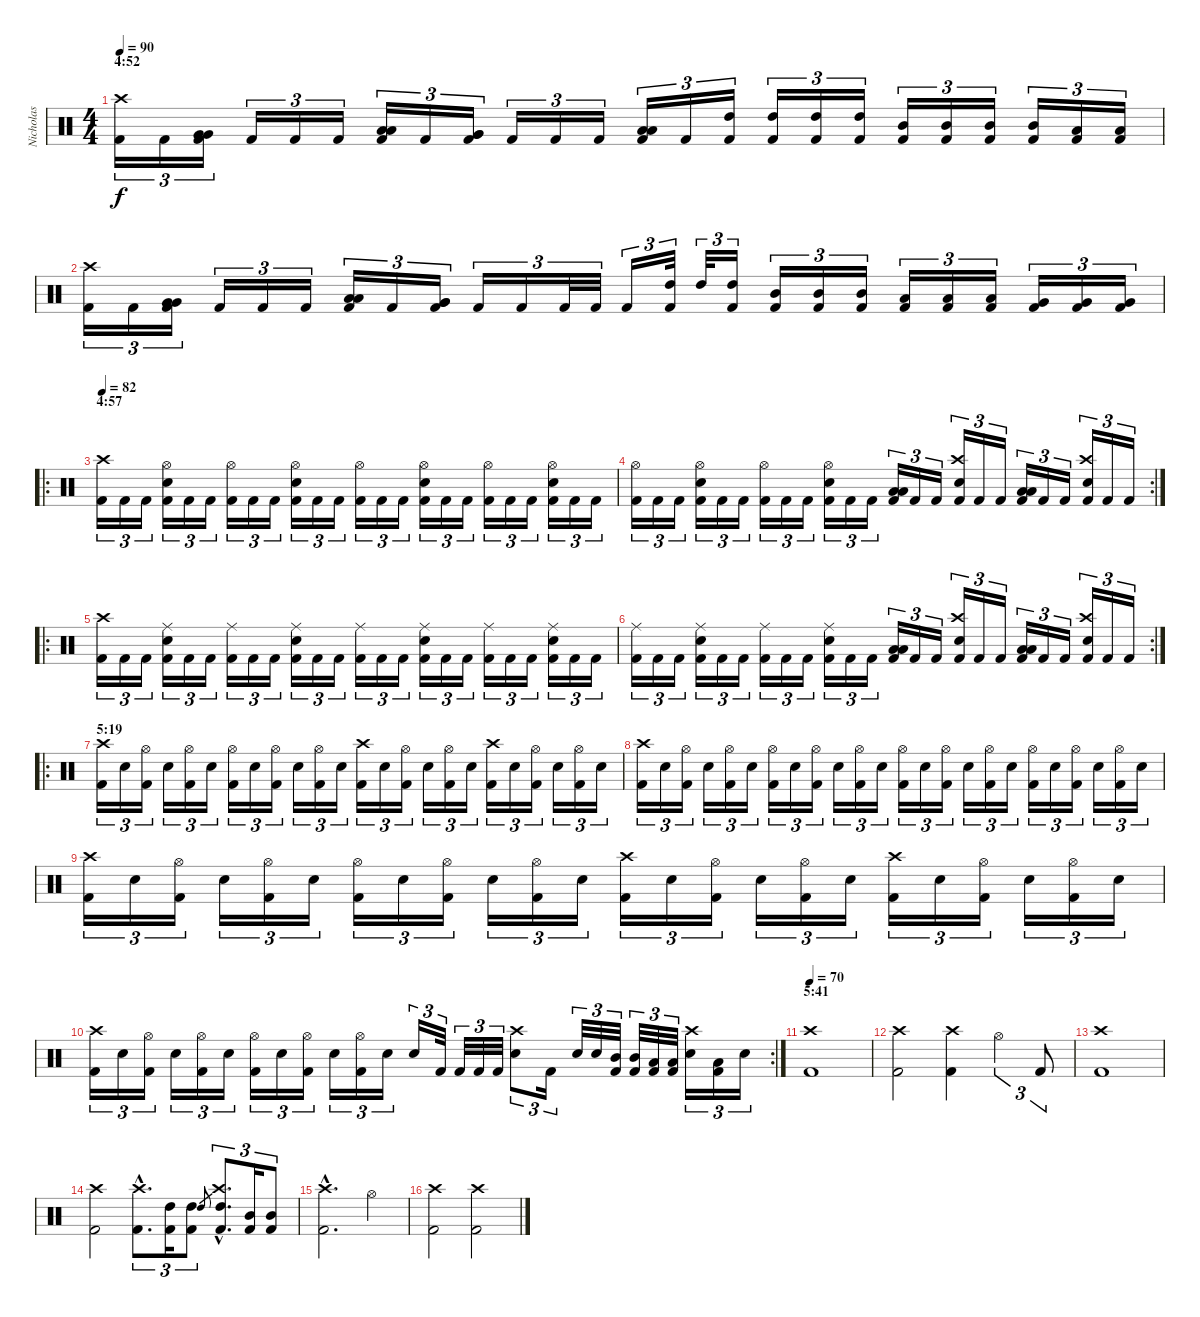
\track ("Nicholas" "Nicholas") {instrument percussion}
\staff {score}
\articulation defaults
\ts (4 4)
\section ("" "4:52")
\tempo 90
\clef neutral
\ks c
("Kick (hit) 2" "Crash high (hit)").16{tu (3 2) dy f} "Kick (hit) 2".16{tu (3 2)} ("Kick (hit) 2" "Very Low Tom (hit)" "Very Low Tom (hit)").16{tu (3 2)} "Kick (hit) 2".16{tu (3 2)} "Kick (hit) 2".16{tu (3 2)} "Kick (hit) 2".16{tu (3 2)} ("Kick (hit) 2" "Low Tom (hit)" "Low Tom (hit)").16{tu (3 2)} "Kick (hit) 2".16{tu (3 2)} ("Kick (hit) 2" "Very Low Tom (hit)" "Very Low Tom (hit)").16{tu (3 2)} "Kick (hit) 2".16{tu (3 2)} "Kick (hit) 2".16{tu (3 2)} "Kick (hit) 2".16{tu (3 2)} ("Kick (hit) 2" "Low Tom (hit)" "Low Tom (hit)").16{tu (3 2)} "Kick (hit) 2".16{tu (3 2)} ("Kick (hit) 2" "High Tom (hit)").16{tu (3 2)} ("Kick (hit) 2" "High Tom (hit)").16{tu (3 2)} ("Kick (hit) 2" "High Tom (hit)").16{tu (3 2)} ("Kick (hit) 2" "High Tom (hit)").16{tu (3 2)} ("Kick (hit) 2" "Mid Tom (hit)").16{tu (3 2)} ("Kick (hit) 2" "Mid Tom (hit)").16{tu (3 2)} ("Kick (hit) 2" "Mid Tom (hit)").16{tu (3 2)} ("Kick (hit) 2" "Mid Tom (hit)").16{tu (3 2)} ("Kick (hit) 2" "Low Tom (hit)").16{tu (3 2)} ("Kick (hit) 2" "Low Tom (hit)").16{tu (3 2)} |
("Kick (hit) 2" "Crash high (hit)").16{tu (3 2)} "Kick (hit) 2".16{tu (3 2)} ("Kick (hit) 2" "Very Low Tom (hit)" "Very Low Tom (hit)").16{tu (3 2)} "Kick (hit) 2".16{tu (3 2)} "Kick (hit) 2".16{tu (3 2)} "Kick (hit) 2".16{tu (3 2)} ("Kick (hit) 2" "Low Tom (hit)" "Low Tom (hit)").16{tu (3 2)} "Kick (hit) 2".16{tu (3 2)} ("Kick (hit) 2" "Very Low Tom (hit)" "Very Low Tom (hit)").16{tu (3 2)} "Kick (hit) 2".16{tu (3 2)} "Kick (hit) 2".16{tu (3 2)} "Kick (hit) 2".32{tu (3 2)} "Kick (hit) 2".32{tu (3 2)} "Kick (hit) 2".16{tu (3 2)} ("Kick (hit) 2" "High Tom (hit)").32{tu (3 2)} "High Tom (hit)".32{tu (3 2)} ("Kick (hit) 2" "High Tom (hit)").16{tu (3 2)} ("Kick (hit) 2" "Mid Tom (hit)").16{tu (3 2)} ("Kick (hit) 2" "Mid Tom (hit)").16{tu (3 2)} ("Kick (hit) 2" "Mid Tom (hit)").16{tu (3 2)} ("Kick (hit) 2" "Low Tom (hit)").16{tu (3 2)} ("Kick (hit) 2" "Low Tom (hit)").16{tu (3 2)} ("Kick (hit) 2" "Low Tom (hit)").16{tu (3 2)} ("Kick (hit) 2" "Very Low Tom (hit)").16{tu (3 2)} ("Kick (hit) 2" "Very Low Tom (hit)").16{tu (3 2)} ("Kick (hit) 2" "Very Low Tom (hit)").16{tu (3 2)} |
\ro
\section ("" "4:57")
\tempo 82
("Kick (hit) 2" "Crash high (hit)").16{tu (3 2)} "Kick (hit) 2".16{tu (3 2)} "Kick (hit) 2".16{tu (3 2)} ("Kick (hit) 2" "Snare (hit) 2" "Hi-Hat (open)").16{tu (3 2)} "Kick (hit) 2".16{tu (3 2)} "Kick (hit) 2".16{tu (3 2)} ("Kick (hit) 2" "Hi-Hat (open)").16{tu (3 2)} "Kick (hit) 2".16{tu (3 2)} "Kick (hit) 2".16{tu (3 2)} ("Kick (hit) 2" "Snare (hit) 2" "Hi-Hat (open)").16{tu (3 2)} "Kick (hit) 2".16{tu (3 2)} "Kick (hit) 2".16{tu (3 2)} ("Kick (hit) 2" "Hi-Hat (open)").16{tu (3 2)} "Kick (hit) 2".16{tu (3 2)} "Kick (hit) 2".16{tu (3 2)} ("Kick (hit) 2" "Snare (hit) 2" "Hi-Hat (open)").16{tu (3 2)} "Kick (hit) 2".16{tu (3 2)} "Kick (hit) 2".16{tu (3 2)} ("Kick (hit) 2" "Hi-Hat (open)").16{tu (3 2)} "Kick (hit) 2".16{tu (3 2)} "Kick (hit) 2".16{tu (3 2)} ("Kick (hit) 2" "Snare (hit) 2" "Hi-Hat (open)").16{tu (3 2)} "Kick (hit) 2".16{tu (3 2)} "Kick (hit) 2".16{tu (3 2)} |
\rc 2
("Kick (hit) 2" "Hi-Hat (open)").16{tu (3 2)} "Kick (hit) 2".16{tu (3 2)} "Kick (hit) 2".16{tu (3 2)} ("Kick (hit) 2" "Snare (hit) 2" "Hi-Hat (open)").16{tu (3 2)} "Kick (hit) 2".16{tu (3 2)} "Kick (hit) 2".16{tu (3 2)} ("Kick (hit) 2" "Hi-Hat (open)").16{tu (3 2)} "Kick (hit) 2".16{tu (3 2)} "Kick (hit) 2".16{tu (3 2)} ("Kick (hit) 2" "Snare (hit) 2" "Hi-Hat (open)").16{tu (3 2)} "Kick (hit) 2".16{tu (3 2)} "Kick (hit) 2".16{tu (3 2)} ("Kick (hit) 2" "Low Tom (hit)" "Low Tom (hit)").16{tu (3 2)} "Kick (hit) 2".16{tu (3 2)} "Kick (hit) 2".16{tu (3 2)} ("Kick (hit) 2" "Snare (hit) 2" "Crash high (hit)").16{tu (3 2)} "Kick (hit) 2".16{tu (3 2)} "Kick (hit) 2".16{tu (3 2)} ("Kick (hit) 2" "Low Tom (hit)" "Low Tom (hit)").16{tu (3 2)} "Kick (hit) 2".16{tu (3 2)} "Kick (hit) 2".16{tu (3 2)} ("Kick (hit) 2" "Snare (hit) 2" "Crash high (hit)").16{tu (3 2)} "Kick (hit) 2".16{tu (3 2)} "Kick (hit) 2".16{tu (3 2)} |
\ro
("Kick (hit) 2" "Crash high (hit)").16{tu (3 2)} "Kick (hit) 2".16{tu (3 2)} "Kick (hit) 2".16{tu (3 2)} ("Kick (hit) 2" "Snare (hit) 2" "Ride (middle)").16{tu (3 2)} "Kick (hit) 2".16{tu (3 2)} "Kick (hit) 2".16{tu (3 2)} ("Kick (hit) 2" "Ride (middle)").16{tu (3 2)} "Kick (hit) 2".16{tu (3 2)} "Kick (hit) 2".16{tu (3 2)} ("Kick (hit) 2" "Snare (hit) 2" "Ride (middle)").16{tu (3 2)} "Kick (hit) 2".16{tu (3 2)} "Kick (hit) 2".16{tu (3 2)} ("Kick (hit) 2" "Ride (middle)").16{tu (3 2)} "Kick (hit) 2".16{tu (3 2)} "Kick (hit) 2".16{tu (3 2)} ("Kick (hit) 2" "Snare (hit) 2" "Ride (middle)").16{tu (3 2)} "Kick (hit) 2".16{tu (3 2)} "Kick (hit) 2".16{tu (3 2)} ("Kick (hit) 2" "Ride (middle)").16{tu (3 2)} "Kick (hit) 2".16{tu (3 2)} "Kick (hit) 2".16{tu (3 2)} ("Kick (hit) 2" "Snare (hit) 2" "Ride (middle)").16{tu (3 2)} "Kick (hit) 2".16{tu (3 2)} "Kick (hit) 2".16{tu (3 2)} |
\rc 2
("Kick (hit) 2" "Ride (middle)").16{tu (3 2)} "Kick (hit) 2".16{tu (3 2)} "Kick (hit) 2".16{tu (3 2)} ("Kick (hit) 2" "Snare (hit) 2" "Ride (middle)").16{tu (3 2)} "Kick (hit) 2".16{tu (3 2)} "Kick (hit) 2".16{tu (3 2)} ("Kick (hit) 2" "Ride (middle)").16{tu (3 2)} "Kick (hit) 2".16{tu (3 2)} "Kick (hit) 2".16{tu (3 2)} ("Kick (hit) 2" "Snare (hit) 2" "Ride (middle)").16{tu (3 2)} "Kick (hit) 2".16{tu (3 2)} "Kick (hit) 2".16{tu (3 2)} ("Kick (hit) 2" "Low Tom (hit)" "Low Tom (hit)").16{tu (3 2)} "Kick (hit) 2".16{tu (3 2)} "Kick (hit) 2".16{tu (3 2)} ("Kick (hit) 2" "Snare (hit) 2" "Crash high (hit)").16{tu (3 2)} "Kick (hit) 2".16{tu (3 2)} "Kick (hit) 2".16{tu (3 2)} ("Kick (hit) 2" "Low Tom (hit)" "Low Tom (hit)").16{tu (3 2)} "Kick (hit) 2".16{tu (3 2)} "Kick (hit) 2".16{tu (3 2)} ("Kick (hit) 2" "Snare (hit) 2" "Crash high (hit)").16{tu (3 2)} "Kick (hit) 2".16{tu (3 2)} "Kick (hit) 2".16{tu (3 2)} |
\ro
\section ("" "5:19")
("Kick (hit) 2" "Crash high (hit)").16{tu (3 2)} "Snare (hit) 2".16{tu (3 2)} ("Kick (hit) 2" "Hi-Hat (open)").16{tu (3 2)} "Snare (hit) 2".16{tu (3 2)} ("Kick (hit) 2" "Hi-Hat (open)").16{tu (3 2)} "Snare (hit) 2".16{tu (3 2)} ("Kick (hit) 2" "Hi-Hat (open)").16{tu (3 2)} "Snare (hit) 2".16{tu (3 2)} ("Kick (hit) 2" "Hi-Hat (open)").16{tu (3 2)} "Snare (hit) 2".16{tu (3 2)} ("Kick (hit) 2" "Hi-Hat (open)").16{tu (3 2)} "Snare (hit) 2".16{tu (3 2)} ("Kick (hit) 2" "Crash high (hit)").16{tu (3 2)} "Snare (hit) 2".16{tu (3 2)} ("Kick (hit) 2" "Hi-Hat (open)").16{tu (3 2)} "Snare (hit) 2".16{tu (3 2)} ("Kick (hit) 2" "Hi-Hat (open)").16{tu (3 2)} "Snare (hit) 2".16{tu (3 2)} ("Kick (hit) 2" "Crash high (hit)").16{tu (3 2)} "Snare (hit) 2".16{tu (3 2)} ("Kick (hit) 2" "Hi-Hat (open)").16{tu (3 2)} "Snare (hit) 2".16{tu (3 2)} ("Kick (hit) 2" "Hi-Hat (open)").16{tu (3 2)} "Snare (hit) 2".16{tu (3 2)} |
("Kick (hit) 2" "Crash high (hit)").16{tu (3 2)} "Snare (hit) 2".16{tu (3 2)} ("Kick (hit) 2" "Hi-Hat (open)").16{tu (3 2)} "Snare (hit) 2".16{tu (3 2)} ("Kick (hit) 2" "Hi-Hat (open)").16{tu (3 2)} "Snare (hit) 2".16{tu (3 2)} ("Kick (hit) 2" "Hi-Hat (open)").16{tu (3 2)} "Snare (hit) 2".16{tu (3 2)} ("Kick (hit) 2" "Hi-Hat (open)").16{tu (3 2)} "Snare (hit) 2".16{tu (3 2)} ("Kick (hit) 2" "Hi-Hat (open)").16{tu (3 2)} "Snare (hit) 2".16{tu (3 2)} ("Kick (hit) 2" "Hi-Hat (open)").16{tu (3 2)} "Snare (hit) 2".16{tu (3 2)} ("Kick (hit) 2" "Hi-Hat (open)").16{tu (3 2)} "Snare (hit) 2".16{tu (3 2)} ("Kick (hit) 2" "Hi-Hat (open)").16{tu (3 2)} "Snare (hit) 2".16{tu (3 2)} ("Kick (hit) 2" "Hi-Hat (open)").16{tu (3 2)} "Snare (hit) 2".16{tu (3 2)} ("Kick (hit) 2" "Hi-Hat (open)").16{tu (3 2)} "Snare (hit) 2".16{tu (3 2)} ("Kick (hit) 2" "Hi-Hat (open)").16{tu (3 2)} "Snare (hit) 2".16{tu (3 2)} |
("Kick (hit) 2" "Crash high (hit)").16{tu (3 2)} "Snare (hit) 2".16{tu (3 2)} ("Kick (hit) 2" "Hi-Hat (open)").16{tu (3 2)} "Snare (hit) 2".16{tu (3 2)} ("Kick (hit) 2" "Hi-Hat (open)").16{tu (3 2)} "Snare (hit) 2".16{tu (3 2)} ("Kick (hit) 2" "Hi-Hat (open)").16{tu (3 2)} "Snare (hit) 2".16{tu (3 2)} ("Kick (hit) 2" "Hi-Hat (open)").16{tu (3 2)} "Snare (hit) 2".16{tu (3 2)} ("Kick (hit) 2" "Hi-Hat (open)").16{tu (3 2)} "Snare (hit) 2".16{tu (3 2)} ("Kick (hit) 2" "Crash high (hit)").16{tu (3 2)} "Snare (hit) 2".16{tu (3 2)} ("Kick (hit) 2" "Hi-Hat (open)").16{tu (3 2)} "Snare (hit) 2".16{tu (3 2)} ("Kick (hit) 2" "Hi-Hat (open)").16{tu (3 2)} "Snare (hit) 2".16{tu (3 2)} ("Kick (hit) 2" "Crash high (hit)").16{tu (3 2)} "Snare (hit) 2".16{tu (3 2)} ("Kick (hit) 2" "Hi-Hat (open)").16{tu (3 2)} "Snare (hit) 2".16{tu (3 2)} ("Kick (hit) 2" "Hi-Hat (open)").16{tu (3 2)} "Snare (hit) 2".16{tu (3 2)} |
\rc 2
("Kick (hit) 2" "Crash high (hit)").16{tu (3 2)} "Snare (hit) 2".16{tu (3 2)} ("Kick (hit) 2" "Hi-Hat (open)").16{tu (3 2)} "Snare (hit) 2".16{tu (3 2)} ("Kick (hit) 2" "Hi-Hat (open)").16{tu (3 2)} "Snare (hit) 2".16{tu (3 2)} ("Kick (hit) 2" "Hi-Hat (open)").16{tu (3 2)} "Snare (hit) 2".16{tu (3 2)} ("Kick (hit) 2" "Hi-Hat (open)").16{tu (3 2)} "Snare (hit) 2".16{tu (3 2)} ("Kick (hit) 2" "Hi-Hat (open)").16{tu (3 2)} "Snare (hit) 2".16{tu (3 2)} "Snare (hit) 2".16{tu (3 2)} "Kick (hit) 2".32{tu (3 2)} "Kick (hit) 2".32{tu (3 2)} "Kick (hit) 2".32{tu (3 2)} "Kick (hit) 2".32{tu (3 2)} ("Snare (hit) 2" "Crash high (hit)").8{tu (3 2)} "Kick (hit) 2".16{tu (3 2)} "Snare (hit) 2".32{tu (3 2)} "Snare (hit) 2".32{tu (3 2)} ("Kick (hit) 2" "Mid Tom (hit)").32{tu (3 2)} ("Kick (hit) 2" "Mid Tom (hit)").32{tu (3 2)} ("Kick (hit) 2" "Low Tom (hit)").32{tu (3 2)} ("Kick (hit) 2" "Low Tom (hit)").32{tu (3 2)} ("Snare (hit) 2" "Crash high (hit)").16{tu (3 2)} ("Kick (hit) 2" "Low Tom (hit)").16{tu (3 2)} "Snare (hit) 2".16{tu (3 2)} |
\section ("" "5:41")
\tempo 70
("Kick (hit) 2" "Crash high (hit)").1 |
("Kick (hit) 2" "Crash high (hit)").2 ("Kick (hit) 2" "Crash high (hit)").4 "Hi-Hat (open)".4{tu (3 2)} "Kick (hit) 2".8{tu (3 2)} |
("Kick (hit) 2" "Crash high (hit)").1 |
("Kick (hit) 2" "Crash high (hit)").2 ("Kick (hit) 2"{hac} "Crash high (hit)"{hac}).8{d tu (3 2)} ("Kick (hit) 2" "High Tom (hit)").16{tu (3 2)} ("Kick (hit) 2" "High Tom (hit)").8{tu (3 2)} "High Tom (hit)".8{gr} ("Kick (hit) 2"{hac} "High Tom (hit)"{hac} "Crash high (hit)"{hac}).8{d tu (3 2)} ("Kick (hit) 2" "Mid Tom (hit)").16{tu (3 2)} ("Kick (hit) 2" "Mid Tom (hit)").8{tu (3 2)} |
("Kick (hit) 2"{hac} "Crash high (hit)"{hac}).2{d} "Hi-Hat (open)".4 |
("Kick (hit) 2" "Crash high (hit)").2 ("Kick (hit) 2" "Crash high (hit)").2
